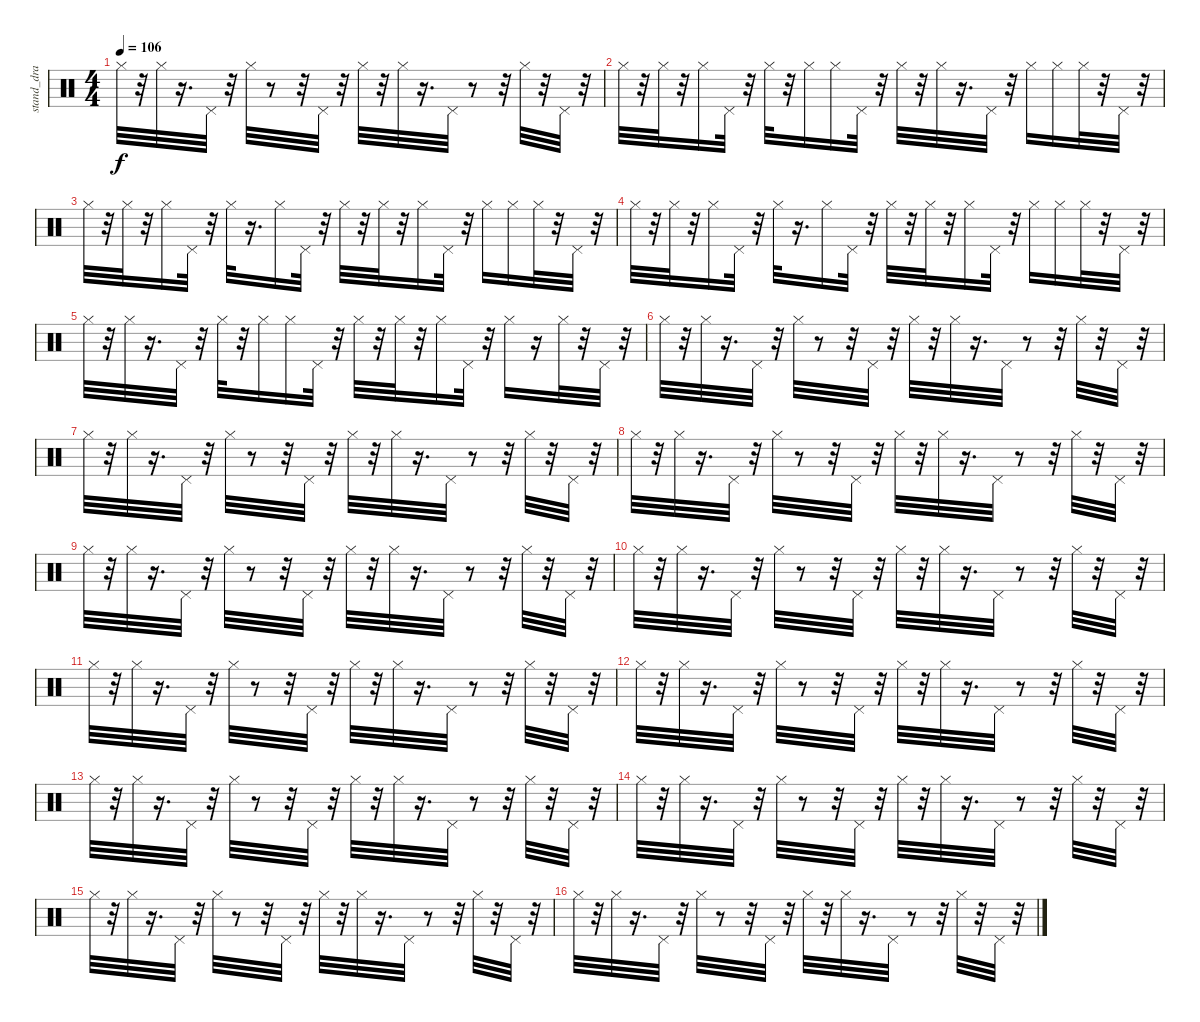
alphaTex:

\track ("stand_dra" "stand_dra") {instrument percussion}
\staff {score}
\articulation defaults
\ts (4 4)
\tempo 106
\clef neutral
\ks c "Hi-Hat (closed)".32{dy f}
r.32 "Hi-Hat (closed)".32 r.16{d} "Pedal Hi-Hat (hit)".32 r.32 "Hi-Hat (closed)".32 r.8 r.32 "Pedal Hi-Hat (hit)".32 r.32 "Hi-Hat (closed)".32 r.32 "Hi-Hat (closed)".32 r.16{d} "Pedal Hi-Hat (hit)".32 r.8 r.32 "Hi-Hat (closed)".32 r.32 "Pedal Hi-Hat (hit)".32 r.32 |
"Hi-Hat (closed)".32 r.32 "Hi-Hat (closed)".32 r.32 "Hi-Hat (closed)".16 "Pedal Hi-Hat (hit)".32 r.32 "Hi-Hat (closed)".32 r.32 "Hi-Hat (closed)".16 "Hi-Hat (closed)".16 "Pedal Hi-Hat (hit)".32 r.32 "Hi-Hat (closed)".32 r.32 "Hi-Hat (closed)".32 r.16{d} "Pedal Hi-Hat (hit)".32 r.32 "Hi-Hat (closed)".16 "Hi-Hat (closed)".16 "Hi-Hat (closed)".32 r.32 "Pedal Hi-Hat (hit)".32 r.32 |
"Hi-Hat (closed)".32 r.32 "Hi-Hat (closed)".32 r.32 "Hi-Hat (closed)".16 "Pedal Hi-Hat (hit)".32 r.32 "Hi-Hat (closed)".32 r.16{d} "Hi-Hat (closed)".16 "Pedal Hi-Hat (hit)".32 r.32 "Hi-Hat (closed)".32 r.32 "Hi-Hat (closed)".32 r.32 "Hi-Hat (closed)".16 "Pedal Hi-Hat (hit)".32 r.32 "Hi-Hat (closed)".16 "Hi-Hat (closed)".16 "Hi-Hat (closed)".32 r.32 "Pedal Hi-Hat (hit)".32 r.32 |
"Hi-Hat (closed)".32 r.32 "Hi-Hat (closed)".32 r.32 "Hi-Hat (closed)".16 "Pedal Hi-Hat (hit)".32 r.32 "Hi-Hat (closed)".32 r.16{d} "Hi-Hat (closed)".16 "Pedal Hi-Hat (hit)".32 r.32 "Hi-Hat (closed)".32 r.32 "Hi-Hat (closed)".32 r.32 "Hi-Hat (closed)".16 "Pedal Hi-Hat (hit)".32 r.32 "Hi-Hat (closed)".16 "Hi-Hat (closed)".16 "Hi-Hat (closed)".32 r.32 "Pedal Hi-Hat (hit)".32 r.32 |
"Hi-Hat (closed)".32 r.32 "Hi-Hat (closed)".32 r.16{d} "Pedal Hi-Hat (hit)".32 r.32 "Hi-Hat (closed)".32 r.32 "Hi-Hat (closed)".16 "Hi-Hat (closed)".16 "Pedal Hi-Hat (hit)".32 r.32 "Hi-Hat (closed)".32 r.32 "Hi-Hat (closed)".32 r.32 "Hi-Hat (closed)".16 "Pedal Hi-Hat (hit)".32 r.32 "Hi-Hat (closed)".16 r.16 "Hi-Hat (closed)".32 r.32 "Pedal Hi-Hat (hit)".32 r.32 |
"Hi-Hat (closed)".32 r.32 "Hi-Hat (closed)".32 r.16{d} "Pedal Hi-Hat (hit)".32 r.32 "Hi-Hat (closed)".32 r.8 r.32 "Pedal Hi-Hat (hit)".32 r.32 "Hi-Hat (closed)".32 r.32 "Hi-Hat (closed)".32 r.16{d} "Pedal Hi-Hat (hit)".32 r.8 r.32 "Hi-Hat (closed)".32 r.32 "Pedal Hi-Hat (hit)".32 r.32 |
"Hi-Hat (closed)".32 r.32 "Hi-Hat (closed)".32 r.16{d} "Pedal Hi-Hat (hit)".32 r.32 "Hi-Hat (closed)".32 r.8 r.32 "Pedal Hi-Hat (hit)".32 r.32 "Hi-Hat (closed)".32 r.32 "Hi-Hat (closed)".32 r.16{d} "Pedal Hi-Hat (hit)".32 r.8 r.32 "Hi-Hat (closed)".32 r.32 "Pedal Hi-Hat (hit)".32 r.32 |
"Hi-Hat (closed)".32 r.32 "Hi-Hat (closed)".32 r.16{d} "Pedal Hi-Hat (hit)".32 r.32 "Hi-Hat (closed)".32 r.8 r.32 "Pedal Hi-Hat (hit)".32 r.32 "Hi-Hat (closed)".32 r.32 "Hi-Hat (closed)".32 r.16{d} "Pedal Hi-Hat (hit)".32 r.8 r.32 "Hi-Hat (closed)".32 r.32 "Pedal Hi-Hat (hit)".32 r.32 |
"Hi-Hat (closed)".32 r.32 "Hi-Hat (closed)".32 r.16{d} "Pedal Hi-Hat (hit)".32 r.32 "Hi-Hat (closed)".32 r.8 r.32 "Pedal Hi-Hat (hit)".32 r.32 "Hi-Hat (closed)".32 r.32 "Hi-Hat (closed)".32 r.16{d} "Pedal Hi-Hat (hit)".32 r.8 r.32 "Hi-Hat (closed)".32 r.32 "Pedal Hi-Hat (hit)".32 r.32 |
"Hi-Hat (closed)".32 r.32 "Hi-Hat (closed)".32 r.16{d} "Pedal Hi-Hat (hit)".32 r.32 "Hi-Hat (closed)".32 r.8 r.32 "Pedal Hi-Hat (hit)".32 r.32 "Hi-Hat (closed)".32 r.32 "Hi-Hat (closed)".32 r.16{d} "Pedal Hi-Hat (hit)".32 r.8 r.32 "Hi-Hat (closed)".32 r.32 "Pedal Hi-Hat (hit)".32 r.32 |
"Hi-Hat (closed)".32 r.32 "Hi-Hat (closed)".32 r.16{d} "Pedal Hi-Hat (hit)".32 r.32 "Hi-Hat (closed)".32 r.8 r.32 "Pedal Hi-Hat (hit)".32 r.32 "Hi-Hat (closed)".32 r.32 "Hi-Hat (closed)".32 r.16{d} "Pedal Hi-Hat (hit)".32 r.8 r.32 "Hi-Hat (closed)".32 r.32 "Pedal Hi-Hat (hit)".32 r.32 |
"Hi-Hat (closed)".32 r.32 "Hi-Hat (closed)".32 r.16{d} "Pedal Hi-Hat (hit)".32 r.32 "Hi-Hat (closed)".32 r.8 r.32 "Pedal Hi-Hat (hit)".32 r.32 "Hi-Hat (closed)".32 r.32 "Hi-Hat (closed)".32 r.16{d} "Pedal Hi-Hat (hit)".32 r.8 r.32 "Hi-Hat (closed)".32 r.32 "Pedal Hi-Hat (hit)".32 r.32 |
"Hi-Hat (closed)".32 r.32 "Hi-Hat (closed)".32 r.16{d} "Pedal Hi-Hat (hit)".32 r.32 "Hi-Hat (closed)".32 r.8 r.32 "Pedal Hi-Hat (hit)".32 r.32 "Hi-Hat (closed)".32 r.32 "Hi-Hat (closed)".32 r.16{d} "Pedal Hi-Hat (hit)".32 r.8 r.32 "Hi-Hat (closed)".32 r.32 "Pedal Hi-Hat (hit)".32 r.32 |
"Hi-Hat (closed)".32 r.32 "Hi-Hat (closed)".32 r.16{d} "Pedal Hi-Hat (hit)".32 r.32 "Hi-Hat (closed)".32 r.8 r.32 "Pedal Hi-Hat (hit)".32 r.32 "Hi-Hat (closed)".32 r.32 "Hi-Hat (closed)".32 r.16{d} "Pedal Hi-Hat (hit)".32 r.8 r.32 "Hi-Hat (closed)".32 r.32 "Pedal Hi-Hat (hit)".32 r.32 |
"Hi-Hat (closed)".32 r.32 "Hi-Hat (closed)".32 r.16{d} "Pedal Hi-Hat (hit)".32 r.32 "Hi-Hat (closed)".32 r.8 r.32 "Pedal Hi-Hat (hit)".32 r.32 "Hi-Hat (closed)".32 r.32 "Hi-Hat (closed)".32 r.16{d} "Pedal Hi-Hat (hit)".32 r.8 r.32 "Hi-Hat (closed)".32 r.32 "Pedal Hi-Hat (hit)".32 r.32 |
"Hi-Hat (closed)".32 r.32 "Hi-Hat (closed)".32 r.16{d} "Pedal Hi-Hat (hit)".32 r.32 "Hi-Hat (closed)".32 r.8 r.32 "Pedal Hi-Hat (hit)".32 r.32 "Hi-Hat (closed)".32 r.32 "Hi-Hat (closed)".32 r.16{d} "Pedal Hi-Hat (hit)".32 r.8 r.32 "Hi-Hat (closed)".32 r.32 "Pedal Hi-Hat (hit)".32 r.32
